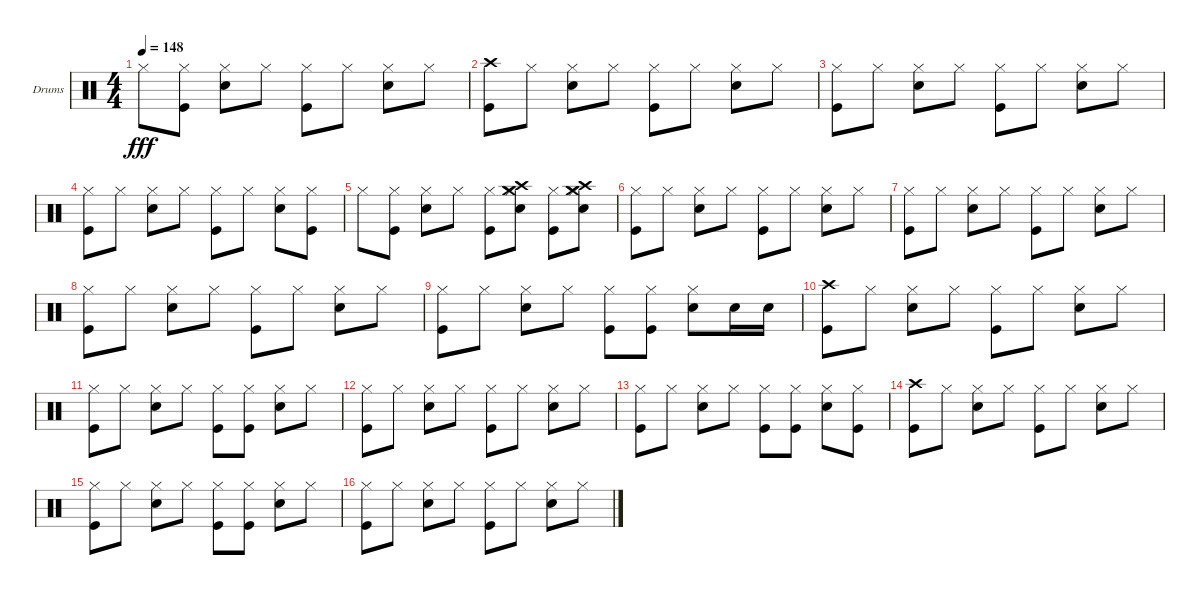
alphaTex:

\bracketExtendMode groupsimilarinstruments
\firstSystemTrackNameOrientation horizontal
\otherSystemsTrackNameOrientation horizontal
\track ("James Kottak" "Drums") {instrument percussion}
\staff {score}
\articulation defaults
\ts (4 4)
\tempo 148
\clef neutral
\ks c "Hi-Hat (closed)".8{dy fff}
("Kick (hit)" "Hi-Hat (closed)").8 ("Snare (hit) 2" "Hi-Hat (closed)").8 "Hi-Hat (closed)".8 ("Hi-Hat (closed)" "Kick (hit)").8 "Hi-Hat (closed)".8 ("Hi-Hat (closed)" "Snare (hit) 2").8 "Hi-Hat (closed)".8 |
("Kick (hit)" "Crash high (hit)").8 "Hi-Hat (closed)".8 ("Hi-Hat (closed)" "Snare (hit) 2").8 "Hi-Hat (closed)".8 ("Hi-Hat (closed)" "Kick (hit)").8 "Hi-Hat (closed)".8 ("Hi-Hat (closed)" "Snare (hit) 2").8 "Hi-Hat (closed)".8 |
("Kick (hit)" "Hi-Hat (closed)").8 "Hi-Hat (closed)".8 ("Hi-Hat (closed)" "Snare (hit) 2").8 "Hi-Hat (closed)".8 ("Hi-Hat (closed)" "Kick (hit)").8 "Hi-Hat (closed)".8 ("Hi-Hat (closed)" "Snare (hit) 2").8 "Hi-Hat (closed)".8 |
("Kick (hit)" "Hi-Hat (closed)").8 "Hi-Hat (closed)".8 ("Hi-Hat (closed)" "Snare (hit) 2").8 "Hi-Hat (closed)".8 ("Hi-Hat (closed)" "Kick (hit)").8 "Hi-Hat (closed)".8 ("Hi-Hat (closed)" "Snare (hit) 2").8 ("Hi-Hat (closed)" "Kick (hit)").8 |
"Hi-Hat (closed)".8 ("Kick (hit)" "Hi-Hat (closed)").8 ("Snare (hit) 2" "Hi-Hat (closed)").8 "Hi-Hat (closed)".8 ("Hi-Hat (closed)" "Kick (hit)").8 ("Hi-Hat (closed)" "Snare (hit) 2" "Crash medium (hit)" "Crash high (hit)").8 ("Hi-Hat (closed)" "Kick (hit)").8 ("Hi-Hat (closed)" "Crash high (hit)" "Crash medium (hit)" "Snare (hit) 2").8 |
("Hi-Hat (closed)" "Kick (hit)").8 "Hi-Hat (closed)".8 ("Hi-Hat (closed)" "Snare (hit) 2").8 "Hi-Hat (closed)".8 ("Hi-Hat (closed)" "Kick (hit)").8 "Hi-Hat (closed)".8 ("Hi-Hat (closed)" "Snare (hit) 2").8 "Hi-Hat (closed)".8 |
("Hi-Hat (closed)" "Kick (hit)").8 "Hi-Hat (closed)".8 ("Hi-Hat (closed)" "Snare (hit) 2").8 "Hi-Hat (closed)".8 ("Hi-Hat (closed)" "Kick (hit)").8 "Hi-Hat (closed)".8 ("Hi-Hat (closed)" "Snare (hit) 2").8 "Hi-Hat (closed)".8 |
("Hi-Hat (closed)" "Kick (hit)").8 "Hi-Hat (closed)".8 ("Hi-Hat (closed)" "Snare (hit) 2").8 "Hi-Hat (closed)".8 ("Hi-Hat (closed)" "Kick (hit)").8 "Hi-Hat (closed)".8 ("Hi-Hat (closed)" "Snare (hit) 2").8 "Hi-Hat (closed)".8 |
("Hi-Hat (closed)" "Kick (hit)").8 "Hi-Hat (closed)".8 ("Hi-Hat (closed)" "Snare (hit) 2").8 "Hi-Hat (closed)".8 ("Hi-Hat (closed)" "Kick (hit)").8 ("Hi-Hat (closed)" "Kick (hit)").8 ("Hi-Hat (closed)" "Snare (hit) 2").8 "Snare (hit) 2".16 "Snare (hit) 2".16 |
("Kick (hit)" "Crash high (hit)").8 "Hi-Hat (closed)".8 ("Hi-Hat (closed)" "Snare (hit) 2").8 "Hi-Hat (closed)".8 ("Hi-Hat (closed)" "Kick (hit)").8 "Hi-Hat (closed)".8 ("Hi-Hat (closed)" "Snare (hit) 2").8 "Hi-Hat (closed)".8 |
("Hi-Hat (closed)" "Kick (hit)").8 "Hi-Hat (closed)".8 ("Hi-Hat (closed)" "Snare (hit) 2").8 "Hi-Hat (closed)".8 ("Hi-Hat (closed)" "Kick (hit)").8 ("Hi-Hat (closed)" "Kick (hit)").8 ("Hi-Hat (closed)" "Snare (hit) 2").8 "Hi-Hat (closed)".8 |
("Kick (hit)" "Hi-Hat (closed)").8 "Hi-Hat (closed)".8 ("Hi-Hat (closed)" "Snare (hit) 2").8 "Hi-Hat (closed)".8 ("Hi-Hat (closed)" "Kick (hit)").8 "Hi-Hat (closed)".8 ("Hi-Hat (closed)" "Snare (hit) 2").8 "Hi-Hat (closed)".8 |
("Kick (hit)" "Hi-Hat (closed)").8 "Hi-Hat (closed)".8 ("Hi-Hat (closed)" "Snare (hit) 2").8 "Hi-Hat (closed)".8 ("Hi-Hat (closed)" "Kick (hit)").8 ("Hi-Hat (closed)" "Kick (hit)").8 ("Hi-Hat (closed)" "Snare (hit) 2").8 ("Hi-Hat (closed)" "Kick (hit)").8 |
("Kick (hit)" "Crash high (hit)").8 "Hi-Hat (closed)".8 ("Hi-Hat (closed)" "Snare (hit) 2").8 "Hi-Hat (closed)".8 ("Hi-Hat (closed)" "Kick (hit)").8 "Hi-Hat (closed)".8 ("Hi-Hat (closed)" "Snare (hit) 2").8 "Hi-Hat (closed)".8 |
("Hi-Hat (closed)" "Kick (hit)").8 "Hi-Hat (closed)".8 ("Hi-Hat (closed)" "Snare (hit) 2").8 "Hi-Hat (closed)".8 ("Hi-Hat (closed)" "Kick (hit)").8 ("Hi-Hat (closed)" "Kick (hit)").8 ("Hi-Hat (closed)" "Snare (hit) 2").8 "Hi-Hat (closed)".8 |
("Kick (hit)" "Hi-Hat (closed)").8 "Hi-Hat (closed)".8 ("Hi-Hat (closed)" "Snare (hit) 2").8 "Hi-Hat (closed)".8 ("Hi-Hat (closed)" "Kick (hit)").8 "Hi-Hat (closed)".8 ("Hi-Hat (closed)" "Snare (hit) 2").8 "Hi-Hat (closed)".8
